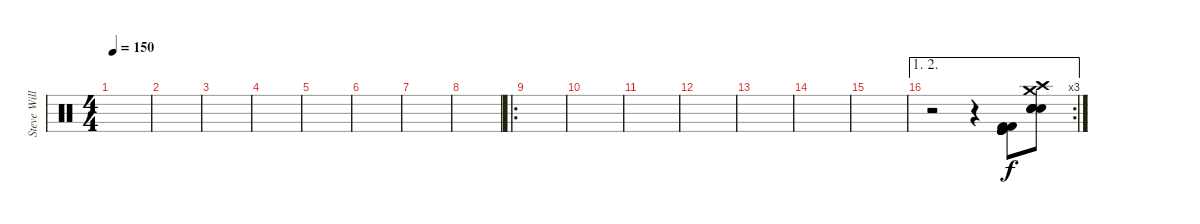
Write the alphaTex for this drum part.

\track ("Steve Williams" "Steve Will") {instrument percussion}
\staff {score}
\articulation defaults
\ts (4 4)
\tempo 150
\clef neutral
\ks c
|
|
|
|
|
|
|
|
\ro
|
|
|
|
|
|
|
\ae (1 2)
\rc 3
r.2 r.4 ("Kick (hit) 2" "Kick (hit) 2" "Kick (hit)" "Kick (hit)" "Kick (hit)" "Kick (hit)").8 ("Crash high (hit)" "Snare (hit) 2" "Snare (hit) 2" "Snare (hit) 2" "Snare (hit) 2" "Crash medium (hit)").8
